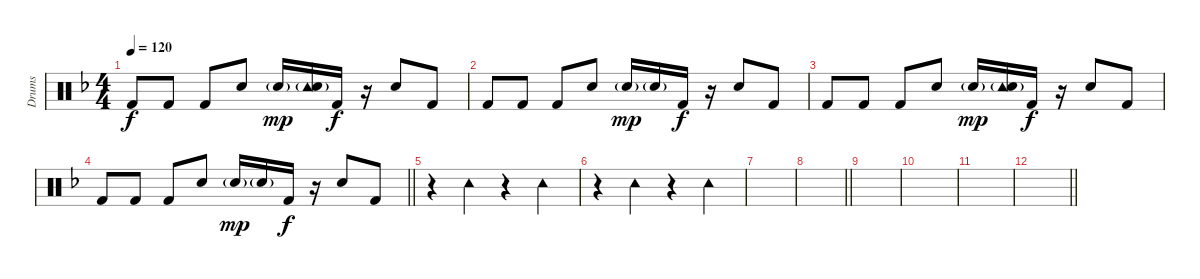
\track ("Drums" "Drums") {instrument percussion}
\staff {score}
\articulation defaults
\ts (4 4)
\tempo 120
\clef neutral
\ks f "Kick (hit) 2".8{dy f} "Kick (hit) 2".8 "Kick (hit) 2".8 "Snare (hit) 2".8 "Snare (hit) 2"{g}.16{dy mp}
("Tambourine (hit)" "Snare (hit) 2"{g}).16 "Kick (hit) 2".16{dy f} r.16 "Snare (hit) 2".8 "Kick (hit) 2".8 |
"Kick (hit) 2".8 "Kick (hit) 2".8 "Kick (hit) 2".8 "Snare (hit) 2".8 "Snare (hit) 2"{g}.16{dy mp} "Snare (hit) 2"{g}.16 "Kick (hit) 2".16{dy f} r.16 "Snare (hit) 2".8 "Kick (hit) 2".8 |
"Kick (hit) 2".8 "Kick (hit) 2".8 "Kick (hit) 2".8 "Snare (hit) 2".8 "Snare (hit) 2"{g}.16{dy mp} ("Tambourine (hit)" "Snare (hit) 2"{g}).16 "Kick (hit) 2".16{dy f} r.16 "Snare (hit) 2".8 "Kick (hit) 2".8 |
\barLineRight lightlight "Kick (hit) 2".8 "Kick (hit) 2".8 "Kick (hit) 2".8 "Snare (hit) 2".8 "Snare (hit) 2"{g}.16{dy mp} "Snare (hit) 2"{g}.16 "Kick (hit) 2".16{dy f}
r.16 "Snare (hit) 2".8 "Kick (hit) 2".8 |
r.4 "Tambourine (hit)".4 r.4 "Tambourine (hit)".4 |
r.4 "Tambourine (hit)".4 r.4 "Tambourine (hit)".4 |
|
\barLineRight lightlight
|
|
|
|
\barLineRight lightlight
